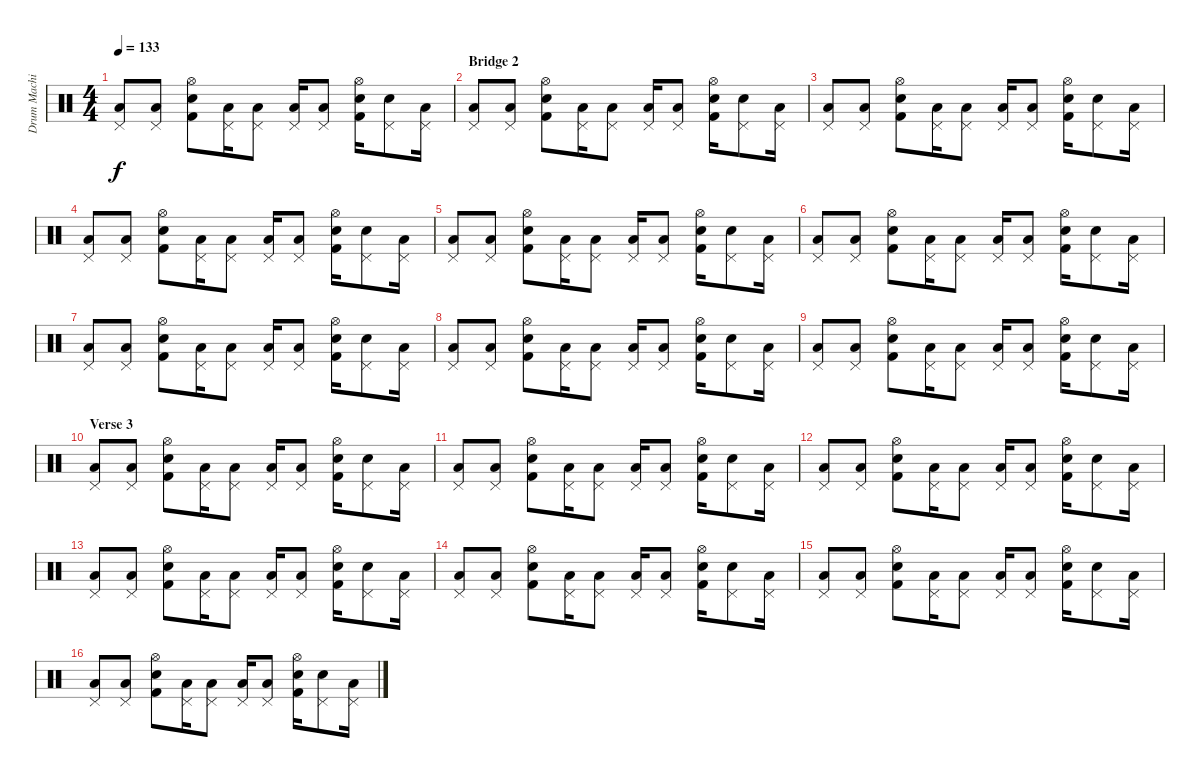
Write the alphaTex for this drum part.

\track ("Drum Machine" "Drum Machi") {instrument percussion}
\staff {score}
\articulation defaults
\ts (4 4)
\tempo 133
\clef neutral
\ks c
("Pedal Hi-Hat (hit)" "Low Tom (hit)").8{dy f} ("Pedal Hi-Hat (hit)" "Low Tom (hit)").8 ("Hi-Hat (open)" "Snare (hit) 2" "Kick (hit) 2").8 ("Pedal Hi-Hat (hit)" "Low Tom (hit)").16 ("Pedal Hi-Hat (hit)" "Low Tom (hit)").8 ("Pedal Hi-Hat (hit)" "Low Tom (hit)").16 ("Pedal Hi-Hat (hit)" "Low Tom (hit)").8 ("Hi-Hat (open)" "Snare (hit) 2" "Kick (hit) 2").16 ("Pedal Hi-Hat (hit)" "Snare (hit) 2").8 ("Pedal Hi-Hat (hit)" "Low Tom (hit)").16 |
\section ("" "Bridge 2")
("Pedal Hi-Hat (hit)" "Low Tom (hit)").8 ("Pedal Hi-Hat (hit)" "Low Tom (hit)").8 ("Hi-Hat (open)" "Snare (hit) 2" "Kick (hit) 2").8 ("Pedal Hi-Hat (hit)" "Low Tom (hit)").16 ("Pedal Hi-Hat (hit)" "Low Tom (hit)").8 ("Pedal Hi-Hat (hit)" "Low Tom (hit)").16 ("Pedal Hi-Hat (hit)" "Low Tom (hit)").8 ("Hi-Hat (open)" "Snare (hit) 2" "Kick (hit) 2").16 ("Pedal Hi-Hat (hit)" "Snare (hit) 2").8 ("Pedal Hi-Hat (hit)" "Low Tom (hit)").16 |
("Pedal Hi-Hat (hit)" "Low Tom (hit)").8 ("Pedal Hi-Hat (hit)" "Low Tom (hit)").8 ("Hi-Hat (open)" "Snare (hit) 2" "Kick (hit) 2").8 ("Pedal Hi-Hat (hit)" "Low Tom (hit)").16 ("Pedal Hi-Hat (hit)" "Low Tom (hit)").8 ("Pedal Hi-Hat (hit)" "Low Tom (hit)").16 ("Pedal Hi-Hat (hit)" "Low Tom (hit)").8 ("Hi-Hat (open)" "Snare (hit) 2" "Kick (hit) 2").16 ("Pedal Hi-Hat (hit)" "Snare (hit) 2").8 ("Pedal Hi-Hat (hit)" "Low Tom (hit)").16 |
("Pedal Hi-Hat (hit)" "Low Tom (hit)").8 ("Pedal Hi-Hat (hit)" "Low Tom (hit)").8 ("Hi-Hat (open)" "Snare (hit) 2" "Kick (hit) 2").8 ("Pedal Hi-Hat (hit)" "Low Tom (hit)").16 ("Pedal Hi-Hat (hit)" "Low Tom (hit)").8 ("Pedal Hi-Hat (hit)" "Low Tom (hit)").16 ("Pedal Hi-Hat (hit)" "Low Tom (hit)").8 ("Hi-Hat (open)" "Snare (hit) 2" "Kick (hit) 2").16 ("Pedal Hi-Hat (hit)" "Snare (hit) 2").8 ("Pedal Hi-Hat (hit)" "Low Tom (hit)").16 |
("Pedal Hi-Hat (hit)" "Low Tom (hit)").8 ("Pedal Hi-Hat (hit)" "Low Tom (hit)").8 ("Hi-Hat (open)" "Snare (hit) 2" "Kick (hit) 2").8 ("Pedal Hi-Hat (hit)" "Low Tom (hit)").16 ("Pedal Hi-Hat (hit)" "Low Tom (hit)").8 ("Pedal Hi-Hat (hit)" "Low Tom (hit)").16 ("Pedal Hi-Hat (hit)" "Low Tom (hit)").8 ("Hi-Hat (open)" "Snare (hit) 2" "Kick (hit) 2").16 ("Pedal Hi-Hat (hit)" "Snare (hit) 2").8 ("Pedal Hi-Hat (hit)" "Low Tom (hit)").16 |
("Pedal Hi-Hat (hit)" "Low Tom (hit)").8 ("Pedal Hi-Hat (hit)" "Low Tom (hit)").8 ("Hi-Hat (open)" "Snare (hit) 2" "Kick (hit) 2").8 ("Pedal Hi-Hat (hit)" "Low Tom (hit)").16 ("Pedal Hi-Hat (hit)" "Low Tom (hit)").8 ("Pedal Hi-Hat (hit)" "Low Tom (hit)").16 ("Pedal Hi-Hat (hit)" "Low Tom (hit)").8 ("Hi-Hat (open)" "Snare (hit) 2" "Kick (hit) 2").16 ("Pedal Hi-Hat (hit)" "Snare (hit) 2").8 ("Pedal Hi-Hat (hit)" "Low Tom (hit)").16 |
("Pedal Hi-Hat (hit)" "Low Tom (hit)").8 ("Pedal Hi-Hat (hit)" "Low Tom (hit)").8 ("Hi-Hat (open)" "Snare (hit) 2" "Kick (hit) 2").8 ("Pedal Hi-Hat (hit)" "Low Tom (hit)").16 ("Pedal Hi-Hat (hit)" "Low Tom (hit)").8 ("Pedal Hi-Hat (hit)" "Low Tom (hit)").16 ("Pedal Hi-Hat (hit)" "Low Tom (hit)").8 ("Hi-Hat (open)" "Snare (hit) 2" "Kick (hit) 2").16 ("Pedal Hi-Hat (hit)" "Snare (hit) 2").8 ("Pedal Hi-Hat (hit)" "Low Tom (hit)").16 |
("Pedal Hi-Hat (hit)" "Low Tom (hit)").8 ("Pedal Hi-Hat (hit)" "Low Tom (hit)").8 ("Hi-Hat (open)" "Snare (hit) 2" "Kick (hit) 2").8 ("Pedal Hi-Hat (hit)" "Low Tom (hit)").16 ("Pedal Hi-Hat (hit)" "Low Tom (hit)").8 ("Pedal Hi-Hat (hit)" "Low Tom (hit)").16 ("Pedal Hi-Hat (hit)" "Low Tom (hit)").8 ("Hi-Hat (open)" "Snare (hit) 2" "Kick (hit) 2").16 ("Pedal Hi-Hat (hit)" "Snare (hit) 2").8 ("Pedal Hi-Hat (hit)" "Low Tom (hit)").16 |
("Pedal Hi-Hat (hit)" "Low Tom (hit)").8 ("Pedal Hi-Hat (hit)" "Low Tom (hit)").8 ("Hi-Hat (open)" "Snare (hit) 2" "Kick (hit) 2").8 ("Pedal Hi-Hat (hit)" "Low Tom (hit)").16 ("Pedal Hi-Hat (hit)" "Low Tom (hit)").8 ("Pedal Hi-Hat (hit)" "Low Tom (hit)").16 ("Pedal Hi-Hat (hit)" "Low Tom (hit)").8 ("Hi-Hat (open)" "Snare (hit) 2" "Kick (hit) 2").16 ("Pedal Hi-Hat (hit)" "Snare (hit) 2").8 ("Pedal Hi-Hat (hit)" "Low Tom (hit)").16 |
\section ("" "Verse 3")
("Pedal Hi-Hat (hit)" "Low Tom (hit)").8 ("Pedal Hi-Hat (hit)" "Low Tom (hit)").8 ("Hi-Hat (open)" "Snare (hit) 2" "Kick (hit) 2").8 ("Pedal Hi-Hat (hit)" "Low Tom (hit)").16 ("Pedal Hi-Hat (hit)" "Low Tom (hit)").8 ("Pedal Hi-Hat (hit)" "Low Tom (hit)").16 ("Pedal Hi-Hat (hit)" "Low Tom (hit)").8 ("Hi-Hat (open)" "Snare (hit) 2" "Kick (hit) 2").16 ("Pedal Hi-Hat (hit)" "Snare (hit) 2").8 ("Pedal Hi-Hat (hit)" "Low Tom (hit)").16 |
("Pedal Hi-Hat (hit)" "Low Tom (hit)").8 ("Pedal Hi-Hat (hit)" "Low Tom (hit)").8 ("Hi-Hat (open)" "Snare (hit) 2" "Kick (hit) 2").8 ("Pedal Hi-Hat (hit)" "Low Tom (hit)").16 ("Pedal Hi-Hat (hit)" "Low Tom (hit)").8 ("Pedal Hi-Hat (hit)" "Low Tom (hit)").16 ("Pedal Hi-Hat (hit)" "Low Tom (hit)").8 ("Hi-Hat (open)" "Snare (hit) 2" "Kick (hit) 2").16 ("Pedal Hi-Hat (hit)" "Snare (hit) 2").8 ("Pedal Hi-Hat (hit)" "Low Tom (hit)").16 |
("Pedal Hi-Hat (hit)" "Low Tom (hit)").8 ("Pedal Hi-Hat (hit)" "Low Tom (hit)").8 ("Hi-Hat (open)" "Snare (hit) 2" "Kick (hit) 2").8 ("Pedal Hi-Hat (hit)" "Low Tom (hit)").16 ("Pedal Hi-Hat (hit)" "Low Tom (hit)").8 ("Pedal Hi-Hat (hit)" "Low Tom (hit)").16 ("Pedal Hi-Hat (hit)" "Low Tom (hit)").8 ("Hi-Hat (open)" "Snare (hit) 2" "Kick (hit) 2").16 ("Pedal Hi-Hat (hit)" "Snare (hit) 2").8 ("Pedal Hi-Hat (hit)" "Low Tom (hit)").16 |
("Pedal Hi-Hat (hit)" "Low Tom (hit)").8 ("Pedal Hi-Hat (hit)" "Low Tom (hit)").8 ("Hi-Hat (open)" "Snare (hit) 2" "Kick (hit) 2").8 ("Pedal Hi-Hat (hit)" "Low Tom (hit)").16 ("Pedal Hi-Hat (hit)" "Low Tom (hit)").8 ("Pedal Hi-Hat (hit)" "Low Tom (hit)").16 ("Pedal Hi-Hat (hit)" "Low Tom (hit)").8 ("Hi-Hat (open)" "Snare (hit) 2" "Kick (hit) 2").16 ("Pedal Hi-Hat (hit)" "Snare (hit) 2").8 ("Pedal Hi-Hat (hit)" "Low Tom (hit)").16 |
("Pedal Hi-Hat (hit)" "Low Tom (hit)").8 ("Pedal Hi-Hat (hit)" "Low Tom (hit)").8 ("Hi-Hat (open)" "Snare (hit) 2" "Kick (hit) 2").8 ("Pedal Hi-Hat (hit)" "Low Tom (hit)").16 ("Pedal Hi-Hat (hit)" "Low Tom (hit)").8 ("Pedal Hi-Hat (hit)" "Low Tom (hit)").16 ("Pedal Hi-Hat (hit)" "Low Tom (hit)").8 ("Hi-Hat (open)" "Snare (hit) 2" "Kick (hit) 2").16 ("Pedal Hi-Hat (hit)" "Snare (hit) 2").8 ("Pedal Hi-Hat (hit)" "Low Tom (hit)").16 |
("Pedal Hi-Hat (hit)" "Low Tom (hit)").8 ("Pedal Hi-Hat (hit)" "Low Tom (hit)").8 ("Hi-Hat (open)" "Snare (hit) 2" "Kick (hit) 2").8 ("Pedal Hi-Hat (hit)" "Low Tom (hit)").16 ("Pedal Hi-Hat (hit)" "Low Tom (hit)").8 ("Pedal Hi-Hat (hit)" "Low Tom (hit)").16 ("Pedal Hi-Hat (hit)" "Low Tom (hit)").8 ("Hi-Hat (open)" "Snare (hit) 2" "Kick (hit) 2").16 ("Pedal Hi-Hat (hit)" "Snare (hit) 2").8 ("Pedal Hi-Hat (hit)" "Low Tom (hit)").16 |
("Pedal Hi-Hat (hit)" "Low Tom (hit)").8 ("Pedal Hi-Hat (hit)" "Low Tom (hit)").8 ("Hi-Hat (open)" "Snare (hit) 2" "Kick (hit) 2").8 ("Pedal Hi-Hat (hit)" "Low Tom (hit)").16 ("Pedal Hi-Hat (hit)" "Low Tom (hit)").8 ("Pedal Hi-Hat (hit)" "Low Tom (hit)").16 ("Pedal Hi-Hat (hit)" "Low Tom (hit)").8 ("Hi-Hat (open)" "Snare (hit) 2" "Kick (hit) 2").16 ("Pedal Hi-Hat (hit)" "Snare (hit) 2").8 ("Pedal Hi-Hat (hit)" "Low Tom (hit)").16
